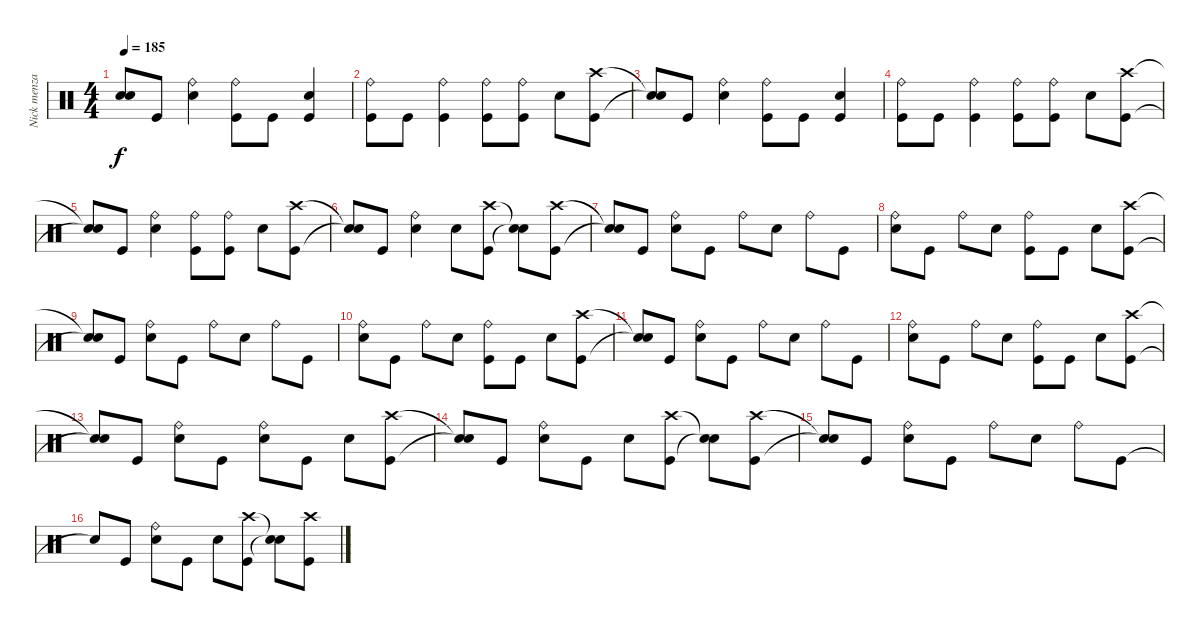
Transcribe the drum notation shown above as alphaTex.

\track ("Nick menza/Jimmy de grasso" "Nick menza") {instrument percussion}
\staff {score}
\articulation defaults
\ts (4 4)
\tempo 185
\clef neutral
\ks c
("Snare (hit)"{t} "Snare (hit)"{t}).8{dy f} "Kick (hit)".8 ("Ride (bell)" "Snare (hit) 2").4 ("Kick (hit)" "Ride (bell)").8 "Kick (hit)".8 ("Kick (hit)" "Snare (hit) 2").4 |
("Kick (hit)" "Ride (bell)").8 "Kick (hit)".8 ("Kick (hit)" "Ride (bell)").4 ("Kick (hit)" "Ride (bell)").8 ("Kick (hit)" "Ride (bell)").8 "Snare (hit) 2".8 ("Kick (hit)" "Crash high (hit)").8 |
("Snare (hit)"{t} "Snare (hit)"{t}).8 "Kick (hit)".8 ("Ride (bell)" "Snare (hit) 2").4 ("Kick (hit)" "Ride (bell)").8 "Kick (hit)".8 ("Kick (hit)" "Snare (hit) 2").4 |
("Kick (hit)" "Ride (bell)").8 "Kick (hit)".8 ("Kick (hit)" "Ride (bell)").4 ("Kick (hit)" "Ride (bell)").8 ("Kick (hit)" "Ride (bell)").8 "Snare (hit) 2".8 ("Kick (hit)" "Crash high (hit)").8 |
("Snare (hit)"{t} "Snare (hit)"{t}).8 "Kick (hit)".8 ("Ride (bell)" "Snare (hit) 2").4 ("Kick (hit)" "Ride (bell)").8 ("Kick (hit)" "Ride (bell)").8 "Snare (hit) 2".8 ("Kick (hit)" "Crash high (hit)").8 |
("Snare (hit)"{t} "Snare (hit)"{t}).8 "Kick (hit)".8 ("Ride (bell)" "Snare (hit) 2").4 "Snare (hit) 2".8 ("Kick (hit)" "Crash high (hit)").8 ("Snare (hit)"{t} "Snare (hit)"{t}).8 ("Kick (hit)" "Crash high (hit)").8 |
("Snare (hit)"{t} "Snare (hit)"{t}).8 "Kick (hit)".8 ("Ride (bell)" "Snare (hit) 2").8 "Kick (hit)".8 "Ride (bell)".8 "Snare (hit) 2".8 "Ride (bell)".8 "Kick (hit)".8 |
("Ride (bell)" "Snare (hit) 2").8 "Kick (hit)".8 "Ride (bell)".8 "Snare (hit) 2".8 ("Kick (hit)" "Ride (bell)").8 "Kick (hit)".8 "Snare (hit) 2".8 ("Kick (hit)" "Crash high (hit)").8 |
("Snare (hit)"{t} "Snare (hit)"{t}).8 "Kick (hit)".8 ("Ride (bell)" "Snare (hit) 2").8 "Kick (hit)".8 "Ride (bell)".8 "Snare (hit) 2".8 "Ride (bell)".8 "Kick (hit)".8 |
("Ride (bell)" "Snare (hit) 2").8 "Kick (hit)".8 "Ride (bell)".8 "Snare (hit) 2".8 ("Kick (hit)" "Ride (bell)").8 "Kick (hit)".8 "Snare (hit) 2".8 ("Kick (hit)" "Crash high (hit)").8 |
("Snare (hit)"{t} "Snare (hit)"{t}).8 "Kick (hit)".8 ("Ride (bell)" "Snare (hit) 2").8 "Kick (hit)".8 "Ride (bell)".8 "Snare (hit) 2".8 "Ride (bell)".8 "Kick (hit)".8 |
("Ride (bell)" "Snare (hit) 2").8 "Kick (hit)".8 "Ride (bell)".8 "Snare (hit) 2".8 ("Kick (hit)" "Ride (bell)").8 "Kick (hit)".8 "Snare (hit) 2".8 ("Kick (hit)" "Crash high (hit)").8 |
("Snare (hit)"{t} "Snare (hit)"{t}).8 "Kick (hit)".8 ("Ride (bell)" "Snare (hit) 2").8 "Kick (hit)".8 ("Ride (bell)" "Snare (hit) 2").8 "Kick (hit)".8 "Snare (hit) 2".8 ("Kick (hit)" "Crash high (hit)").8 |
("Snare (hit)"{t} "Snare (hit)"{t}).8 "Kick (hit)".8 ("Ride (bell)" "Snare (hit) 2").8 "Kick (hit)".8 "Snare (hit) 2".8 ("Kick (hit)" "Crash high (hit)").8 ("Snare (hit)"{t} "Snare (hit)"{t}).8 ("Kick (hit)" "Crash high (hit)").8 |
("Snare (hit)"{t} "Snare (hit)"{t}).8 "Kick (hit)".8 ("Ride (bell)" "Snare (hit) 2").8 "Kick (hit)".8 "Ride (bell)".8 "Snare (hit) 2".8 "Ride (bell)".8 "Kick (hit)".8 |
"Snare (hit)"{t}.8 "Kick (hit)".8 ("Ride (bell)" "Snare (hit) 2").8 "Kick (hit)".8 "Snare (hit) 2".8 ("Kick (hit)" "Crash high (hit)").8 ("Snare (hit)"{t} "Snare (hit)"{t}).8 ("Kick (hit)" "Crash high (hit)").8
